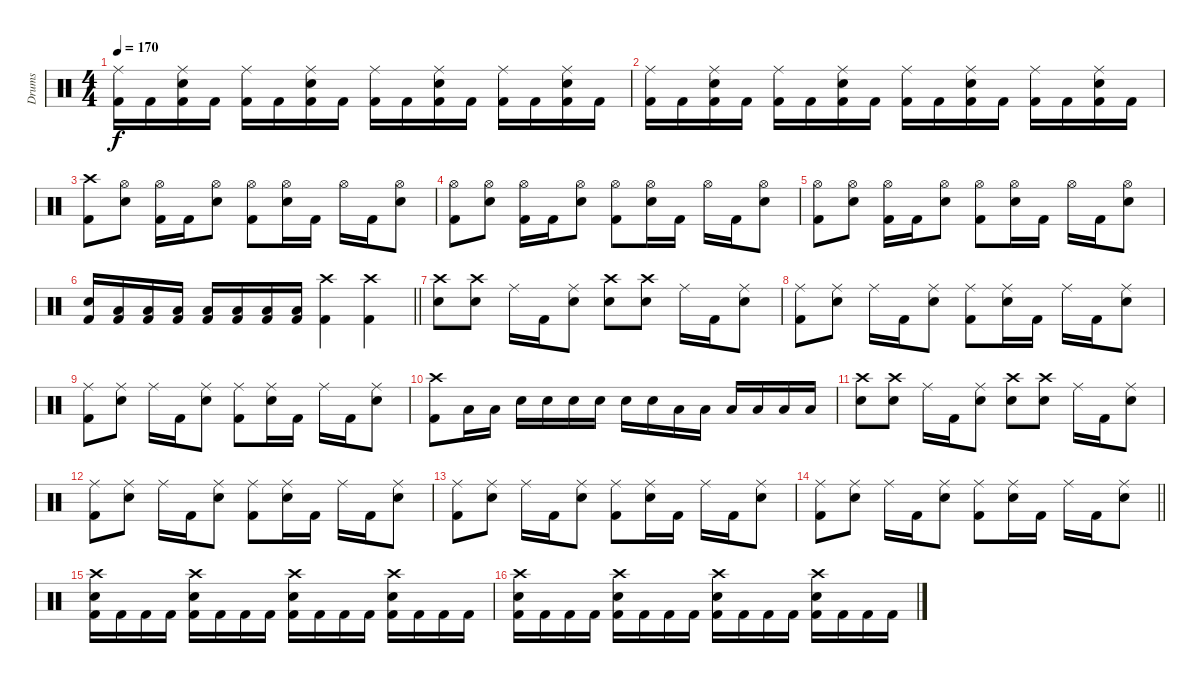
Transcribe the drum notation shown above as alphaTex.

\track ("Drums" "Drums") {instrument percussion}
\staff {score}
\articulation defaults
\ts (4 4)
\tempo 170
\clef neutral
\ks c
("Ride (middle)" "Kick (hit) 2").16{dy f} "Kick (hit) 2".16 ("Ride (middle)" "Snare (hit) 2" "Kick (hit) 2").16 "Kick (hit) 2".16 ("Ride (middle)" "Kick (hit) 2").16 "Kick (hit) 2".16 ("Ride (middle)" "Snare (hit) 2" "Kick (hit) 2").16 "Kick (hit) 2".16 ("Ride (middle)" "Kick (hit) 2").16 "Kick (hit) 2".16 ("Ride (middle)" "Snare (hit) 2" "Kick (hit) 2").16 "Kick (hit) 2".16 ("Ride (middle)" "Kick (hit) 2").16 "Kick (hit) 2".16 ("Ride (middle)" "Snare (hit) 2" "Kick (hit) 2").16 "Kick (hit) 2".16 |
("Ride (middle)" "Kick (hit) 2").16 "Kick (hit) 2".16 ("Ride (middle)" "Snare (hit) 2" "Kick (hit) 2").16 "Kick (hit) 2".16 ("Ride (middle)" "Kick (hit) 2").16 "Kick (hit) 2".16 ("Ride (middle)" "Snare (hit) 2" "Kick (hit) 2").16 "Kick (hit) 2".16 ("Ride (middle)" "Kick (hit) 2").16 "Kick (hit) 2".16 ("Ride (middle)" "Snare (hit) 2" "Kick (hit) 2").16 "Kick (hit) 2".16 ("Ride (middle)" "Kick (hit) 2").16 "Kick (hit) 2".16 ("Ride (middle)" "Snare (hit) 2" "Kick (hit) 2").16 "Kick (hit) 2".16 |
("Crash high (hit)" "Kick (hit) 2").8 ("Hi-Hat (open)" "Snare (hit) 2").8 ("Hi-Hat (open)" "Kick (hit) 2").16 "Kick (hit) 2".16 ("Hi-Hat (open)" "Snare (hit) 2").8 ("Hi-Hat (open)" "Kick (hit) 2").8 ("Hi-Hat (open)" "Snare (hit) 2").16 "Kick (hit) 2".16 "Hi-Hat (open)".16 "Kick (hit) 2".16 ("Hi-Hat (open)" "Snare (hit) 2").8 |
("Hi-Hat (open)" "Kick (hit) 2").8 ("Hi-Hat (open)" "Snare (hit) 2").8 ("Hi-Hat (open)" "Kick (hit) 2").16 "Kick (hit) 2".16 ("Hi-Hat (open)" "Snare (hit) 2").8 ("Hi-Hat (open)" "Kick (hit) 2").8 ("Hi-Hat (open)" "Snare (hit) 2").16 "Kick (hit) 2".16 "Hi-Hat (open)".16 "Kick (hit) 2".16 ("Hi-Hat (open)" "Snare (hit) 2").8 |
("Hi-Hat (open)" "Kick (hit) 2").8 ("Hi-Hat (open)" "Snare (hit) 2").8 ("Hi-Hat (open)" "Kick (hit) 2").16 "Kick (hit) 2".16 ("Hi-Hat (open)" "Snare (hit) 2").8 ("Hi-Hat (open)" "Kick (hit) 2").8 ("Hi-Hat (open)" "Snare (hit) 2").16 "Kick (hit) 2".16 "Hi-Hat (open)".16 "Kick (hit) 2".16 ("Hi-Hat (open)" "Snare (hit) 2").8 |
\barLineRight lightlight
("Snare (hit) 2" "Kick (hit) 2").16 ("Low Tom (hit)" "Kick (hit) 2").16 ("Low Floor Tom (hit)" "Kick (hit) 2").16 ("Low Floor Tom (hit)" "Kick (hit) 2").16 ("Low Tom (hit)" "Kick (hit) 2").16 ("Low Floor Tom (hit)" "Kick (hit) 2").16 ("Low Floor Tom (hit)" "Kick (hit) 2").16 ("Low Floor Tom (hit)" "Kick (hit) 2").16 ("Crash high (hit)" "Kick (hit) 2").4 ("Crash high (hit)" "Kick (hit) 2").4 |
("Crash high (hit)" "Snare (hit) 2").8 ("Crash high (hit)" "Snare (hit) 2").8 "Ride (middle)".16 "Kick (hit) 2".16 ("Ride (middle)" "Snare (hit) 2").8 ("Crash high (hit)" "Snare (hit) 2").8 ("Crash high (hit)" "Snare (hit) 2").8 "Ride (middle)".16 "Kick (hit) 2".16 ("Ride (middle)" "Snare (hit) 2").8 |
("Ride (middle)" "Kick (hit) 2").8 ("Ride (middle)" "Snare (hit) 2").8 "Ride (middle)".16 "Kick (hit) 2".16 ("Ride (middle)" "Snare (hit) 2").8 ("Ride (middle)" "Kick (hit) 2").8 ("Ride (middle)" "Snare (hit) 2").16 "Kick (hit) 2".16 "Ride (middle)".16 "Kick (hit) 2".16 ("Ride (middle)" "Snare (hit) 2").8 |
("Ride (middle)" "Kick (hit) 2").8 ("Ride (middle)" "Snare (hit) 2").8 "Ride (middle)".16 "Kick (hit) 2".16 ("Ride (middle)" "Snare (hit) 2").8 ("Ride (middle)" "Kick (hit) 2").8 ("Ride (middle)" "Snare (hit) 2").16 "Kick (hit) 2".16 "Ride (middle)".16 "Kick (hit) 2".16 ("Ride (middle)" "Snare (hit) 2").8 |
("Crash high (hit)" "Kick (hit) 2").8 "Low Tom (hit)".16 "Low Tom (hit)".16 "Snare (hit) 2".16 "Snare (hit) 2".16 "Snare (hit) 2".16 "Snare (hit) 2".16 "Snare (hit) 2".16 "Snare (hit) 2".16 "Low Tom (hit)".16 "Low Tom (hit)".16 "Low Floor Tom (hit)".16 "Low Floor Tom (hit)".16 "Low Floor Tom (hit)".16 "Low Floor Tom (hit)".16 |
("Crash high (hit)" "Snare (hit) 2").8 ("Crash high (hit)" "Snare (hit) 2").8 "Ride (middle)".16 "Kick (hit) 2".16 ("Ride (middle)" "Snare (hit) 2").8 ("Crash high (hit)" "Snare (hit) 2").8 ("Crash high (hit)" "Snare (hit) 2").8 "Ride (middle)".16 "Kick (hit) 2".16 ("Ride (middle)" "Snare (hit) 2").8 |
("Ride (middle)" "Kick (hit) 2").8 ("Ride (middle)" "Snare (hit) 2").8 "Ride (middle)".16 "Kick (hit) 2".16 ("Ride (middle)" "Snare (hit) 2").8 ("Ride (middle)" "Kick (hit) 2").8 ("Ride (middle)" "Snare (hit) 2").16 "Kick (hit) 2".16 "Ride (middle)".16 "Kick (hit) 2".16 ("Ride (middle)" "Snare (hit) 2").8 |
("Ride (middle)" "Kick (hit) 2").8 ("Ride (middle)" "Snare (hit) 2").8 "Ride (middle)".16 "Kick (hit) 2".16 ("Ride (middle)" "Snare (hit) 2").8 ("Ride (middle)" "Kick (hit) 2").8 ("Ride (middle)" "Snare (hit) 2").16 "Kick (hit) 2".16 "Ride (middle)".16 "Kick (hit) 2".16 ("Ride (middle)" "Snare (hit) 2").8 |
\barLineRight lightlight
("Ride (middle)" "Kick (hit) 2").8 ("Ride (middle)" "Snare (hit) 2").8 "Ride (middle)".16 "Kick (hit) 2".16 ("Ride (middle)" "Snare (hit) 2").8 ("Ride (middle)" "Kick (hit) 2").8 ("Ride (middle)" "Snare (hit) 2").16 "Kick (hit) 2".16 "Ride (middle)".16 "Kick (hit) 2".16 ("Ride (middle)" "Snare (hit) 2").8 |
("Crash high (hit)" "Snare (hit) 2" "Kick (hit) 2").16 "Kick (hit) 2".16 "Kick (hit) 2".16 "Kick (hit) 2".16 ("Crash high (hit)" "Snare (hit) 2" "Kick (hit) 2").16 "Kick (hit) 2".16 "Kick (hit) 2".16 "Kick (hit) 2".16 ("Crash high (hit)" "Snare (hit) 2" "Kick (hit) 2").16 "Kick (hit) 2".16 "Kick (hit) 2".16 "Kick (hit) 2".16 ("Crash high (hit)" "Snare (hit) 2" "Kick (hit) 2").16 "Kick (hit) 2".16 "Kick (hit) 2".16 "Kick (hit) 2".16 |
("Crash high (hit)" "Snare (hit) 2" "Kick (hit) 2").16 "Kick (hit) 2".16 "Kick (hit) 2".16 "Kick (hit) 2".16 ("Crash high (hit)" "Snare (hit) 2" "Kick (hit) 2").16 "Kick (hit) 2".16 "Kick (hit) 2".16 "Kick (hit) 2".16 ("Crash high (hit)" "Snare (hit) 2" "Kick (hit) 2").16 "Kick (hit) 2".16 "Kick (hit) 2".16 "Kick (hit) 2".16 ("Crash high (hit)" "Snare (hit) 2" "Kick (hit) 2").16 "Kick (hit) 2".16 "Kick (hit) 2".16 "Kick (hit) 2".16
